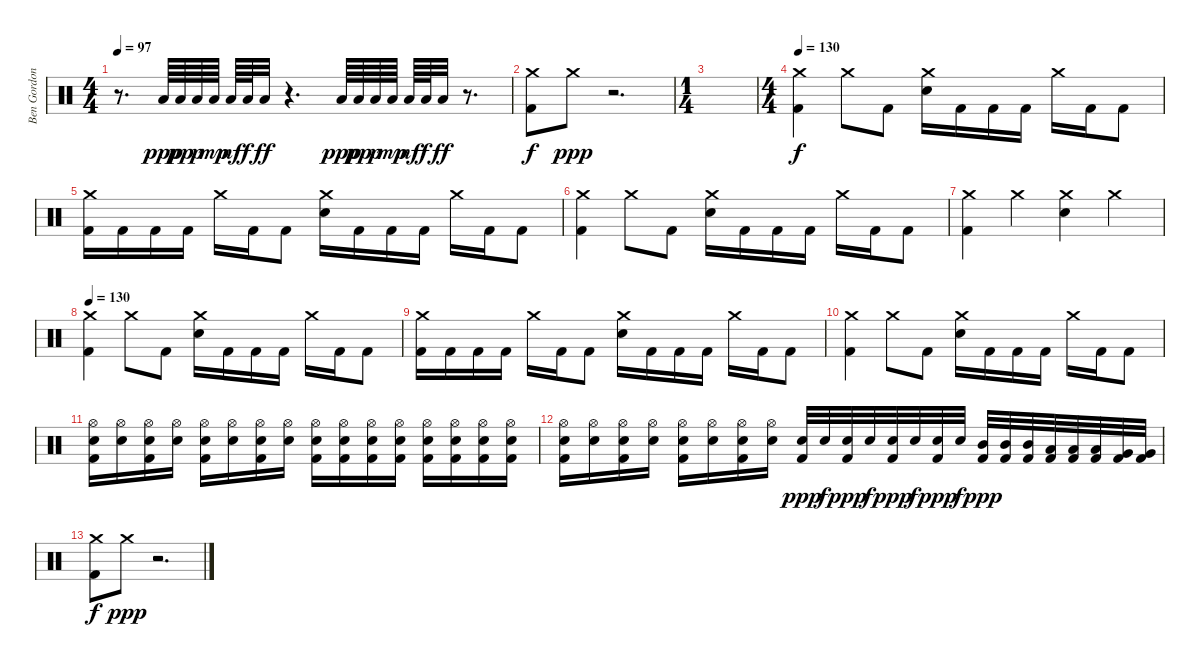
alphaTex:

\track ("Ben Gordon" "Ben Gordon") {instrument percussion}
\staff {score}
\articulation defaults
\ts (4 4)
\tempo 97
\clef neutral
\ks c
r.8{d dy ff} "Low Floor Tom (hit)".64{dy ppp} "Low Floor Tom (hit)".64{dy pp} "Low Floor Tom (hit)".64{dy p} "Low Floor Tom (hit)".64{dy mp} "Low Floor Tom (hit)".64{dy mf} "Low Floor Tom (hit)".64{dy f} "Low Floor Tom (hit)".32{dy ff} r.4{d} "Low Floor Tom (hit)".64{dy ppp} "Low Floor Tom (hit)".64{dy pp} "Low Floor Tom (hit)".64{dy p} "Low Floor Tom (hit)".64{dy mp} "Low Floor Tom (hit)".64{dy mf} "Low Floor Tom (hit)".64{dy f} "Low Floor Tom (hit)".32{dy ff} r.8{d} |
("Crash medium (hit)" "Kick (hit) 2").8{dy f} "Crash medium (hit)".8{dy ppp} r.2{d} |
\ts (1 4)
|
\ts (4 4)
\tempo 130
("Crash medium (hit)" "Kick (hit) 2").4{dy f} "Crash medium (hit)".8 "Kick (hit) 2".8 ("Crash medium (hit)" "Snare (hit) 2").16 "Kick (hit) 2".16 "Kick (hit) 2".16 "Kick (hit) 2".16 "Crash medium (hit)".16 "Kick (hit) 2".16 "Kick (hit) 2".8 |
("Crash medium (hit)" "Kick (hit) 2").16 "Kick (hit) 2".16 "Kick (hit) 2".16 "Kick (hit) 2".16 "Crash medium (hit)".16 "Kick (hit) 2".16 "Kick (hit) 2".8 ("Crash medium (hit)" "Snare (hit) 2").16 "Kick (hit) 2".16 "Kick (hit) 2".16 "Kick (hit) 2".16 "Crash medium (hit)".16 "Kick (hit) 2".16 "Kick (hit) 2".8 |
("Crash medium (hit)" "Kick (hit) 2").4 "Crash medium (hit)".8 "Kick (hit) 2".8 ("Crash medium (hit)" "Snare (hit) 2").16 "Kick (hit) 2".16 "Kick (hit) 2".16 "Kick (hit) 2".16 "Crash medium (hit)".16 "Kick (hit) 2".16 "Kick (hit) 2".8 |
("Crash medium (hit)" "Kick (hit) 2").4 "Crash medium (hit)".4 ("Crash medium (hit)" "Snare (hit) 2").4 "Crash medium (hit)".4 |
\tempo 130
("Crash medium (hit)" "Kick (hit) 2").4 "Crash medium (hit)".8 "Kick (hit) 2".8 ("Crash medium (hit)" "Snare (hit) 2").16 "Kick (hit) 2".16 "Kick (hit) 2".16 "Kick (hit) 2".16 "Crash medium (hit)".16 "Kick (hit) 2".16 "Kick (hit) 2".8 |
("Crash medium (hit)" "Kick (hit) 2").16 "Kick (hit) 2".16 "Kick (hit) 2".16 "Kick (hit) 2".16 "Crash medium (hit)".16 "Kick (hit) 2".16 "Kick (hit) 2".8 ("Crash medium (hit)" "Snare (hit) 2").16 "Kick (hit) 2".16 "Kick (hit) 2".16 "Kick (hit) 2".16 "Crash medium (hit)".16 "Kick (hit) 2".16 "Kick (hit) 2".8 |
("Crash medium (hit)" "Kick (hit) 2").4 "Crash medium (hit)".8 "Kick (hit) 2".8 ("Crash medium (hit)" "Snare (hit) 2").16 "Kick (hit) 2".16 "Kick (hit) 2".16 "Kick (hit) 2".16 "Crash medium (hit)".16 "Kick (hit) 2".16 "Kick (hit) 2".8 |
("Hi-Hat (open)" "Snare (hit) 2" "Kick (hit) 2").16 ("Hi-Hat (open)" "Snare (hit) 2").16 ("Hi-Hat (open)" "Snare (hit) 2" "Kick (hit) 2").16 ("Hi-Hat (open)" "Snare (hit) 2").16 ("Hi-Hat (open)" "Snare (hit) 2" "Kick (hit) 2").16 ("Hi-Hat (open)" "Snare (hit) 2").16 ("Hi-Hat (open)" "Snare (hit) 2" "Kick (hit) 2").16 ("Hi-Hat (open)" "Snare (hit) 2").16 ("Hi-Hat (open)" "Snare (hit) 2" "Kick (hit) 2").16 ("Hi-Hat (open)" "Snare (hit) 2" "Kick (hit) 2").16 ("Hi-Hat (open)" "Snare (hit) 2" "Kick (hit) 2").16 ("Hi-Hat (open)" "Snare (hit) 2" "Kick (hit) 2").16 ("Hi-Hat (open)" "Snare (hit) 2" "Kick (hit) 2").16 ("Hi-Hat (open)" "Snare (hit) 2" "Kick (hit) 2").16 ("Hi-Hat (open)" "Snare (hit) 2" "Kick (hit) 2").16 ("Hi-Hat (open)" "Snare (hit) 2" "Kick (hit) 2").16 |
("Hi-Hat (open)" "Snare (hit) 2" "Kick (hit) 2").16 ("Hi-Hat (open)" "Snare (hit) 2").16 ("Hi-Hat (open)" "Snare (hit) 2" "Kick (hit) 2").16 ("Hi-Hat (open)" "Snare (hit) 2").16 ("Hi-Hat (open)" "Snare (hit) 2" "Kick (hit) 2").16 ("Hi-Hat (open)" "Snare (hit) 2").16 ("Hi-Hat (open)" "Snare (hit) 2" "Kick (hit) 2").16 ("Hi-Hat (open)" "Snare (hit) 2").16 ("Snare (hit) 2" "Kick (hit) 2").32{dy ppp} "Snare (hit) 2".32{dy f} ("Snare (hit) 2" "Kick (hit) 2").32{dy ppp} "Snare (hit) 2".32{dy f} ("Snare (hit) 2" "Kick (hit) 2").32{dy ppp} "Snare (hit) 2".32{dy f} ("Snare (hit) 2" "Kick (hit) 2").32{dy ppp} "Snare (hit) 2".32{dy f} ("Mid Tom (hit)" "Kick (hit) 2").32{dy ppp} ("Mid Tom (hit)" "Kick (hit) 2").32 ("Mid Tom (hit)" "Kick (hit) 2").32 ("Low Tom (hit)" "Kick (hit) 2").32 ("Low Tom (hit)" "Kick (hit) 2").32 ("Low Tom (hit)" "Kick (hit) 2").32 ("Very Low Tom (hit)" "Kick (hit) 2").32 ("Very Low Tom (hit)" "Kick (hit) 2").32 |
("Crash medium (hit)" "Kick (hit) 2").8{dy f} "Crash medium (hit)".8{dy ppp} r.2{d}
